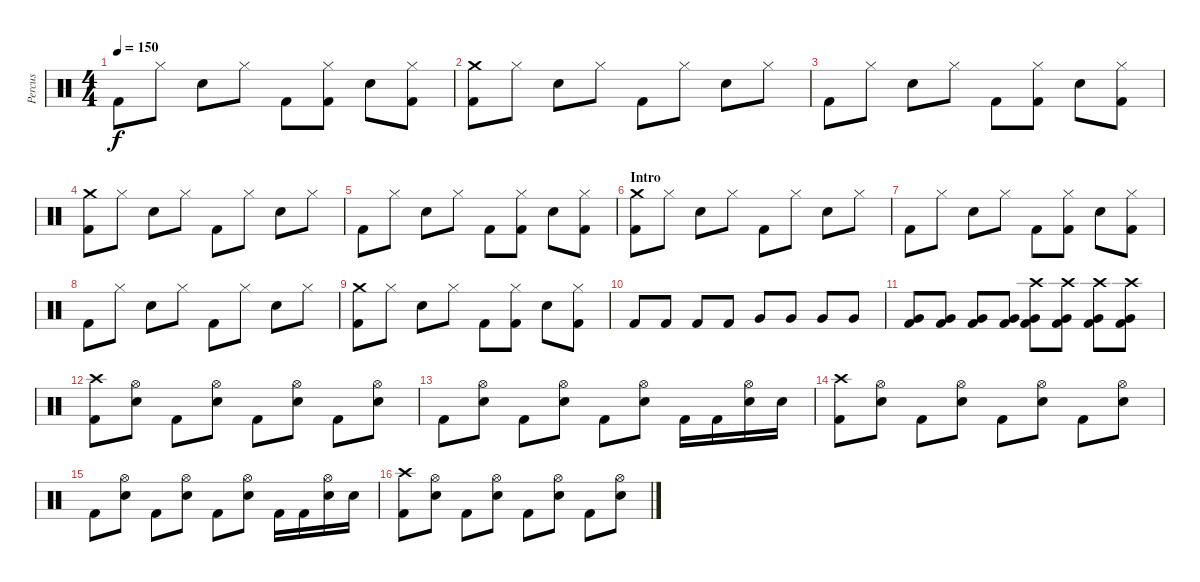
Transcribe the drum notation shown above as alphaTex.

\track ("Percus" "Percus") {instrument percussion}
\staff {score}
\articulation defaults
\ts (4 4)
\tempo 150
\clef neutral
\ks c "Kick (hit) 2".8{dy f} "Hi-Hat (closed)".8 "Snare (hit) 2".8 "Hi-Hat (closed)".8 "Kick (hit) 2".8
("Hi-Hat (closed)" "Kick (hit) 2").8 "Snare (hit) 2".8 ("Hi-Hat (closed)" "Kick (hit) 2").8 |
("Crash medium (hit)" "Kick (hit) 2").8 "Hi-Hat (closed)".8 "Snare (hit) 2".8 "Hi-Hat (closed)".8 "Kick (hit) 2".8 "Hi-Hat (closed)".8 "Snare (hit) 2".8 "Hi-Hat (closed)".8 |
"Kick (hit) 2".8 "Hi-Hat (closed)".8 "Snare (hit) 2".8 "Hi-Hat (closed)".8 "Kick (hit) 2".8 ("Hi-Hat (closed)" "Kick (hit) 2").8 "Snare (hit) 2".8 ("Hi-Hat (closed)" "Kick (hit) 2").8 |
("Crash medium (hit)" "Kick (hit) 2").8 "Hi-Hat (closed)".8 "Snare (hit) 2".8 "Hi-Hat (closed)".8 "Kick (hit) 2".8 "Hi-Hat (closed)".8 "Snare (hit) 2".8 "Hi-Hat (closed)".8 |
"Kick (hit) 2".8 "Hi-Hat (closed)".8 "Snare (hit) 2".8 "Hi-Hat (closed)".8 "Kick (hit) 2".8 ("Hi-Hat (closed)" "Kick (hit) 2").8 "Snare (hit) 2".8 ("Hi-Hat (closed)" "Kick (hit) 2").8 |
\section ("" "Intro")
("Crash medium (hit)" "Kick (hit) 2").8 "Hi-Hat (closed)".8 "Snare (hit) 2".8 "Hi-Hat (closed)".8 "Kick (hit) 2".8 "Hi-Hat (closed)".8 "Snare (hit) 2".8 "Hi-Hat (closed)".8 |
"Kick (hit) 2".8 "Hi-Hat (closed)".8 "Snare (hit) 2".8 "Hi-Hat (closed)".8 "Kick (hit) 2".8 ("Hi-Hat (closed)" "Kick (hit) 2").8 "Snare (hit) 2".8 ("Hi-Hat (closed)" "Kick (hit) 2").8 |
"Kick (hit) 2".8 "Hi-Hat (closed)".8 "Snare (hit) 2".8 "Hi-Hat (closed)".8 "Kick (hit) 2".8 "Hi-Hat (closed)".8 "Snare (hit) 2".8 "Hi-Hat (closed)".8 |
("Crash medium (hit)" "Kick (hit) 2").8 "Hi-Hat (closed)".8 "Snare (hit) 2".8 "Hi-Hat (closed)".8 "Kick (hit) 2".8 ("Hi-Hat (closed)" "Kick (hit) 2").8 "Snare (hit) 2".8 ("Hi-Hat (closed)" "Kick (hit) 2").8 |
"Kick (hit) 2".8 "Kick (hit) 2".8 "Kick (hit) 2".8 "Kick (hit) 2".8 "Very Low Tom (hit)".8 "Very Low Tom (hit)".8 "Very Low Tom (hit)".8 "Very Low Tom (hit)".8 |
("Very Low Tom (hit)" "Kick (hit) 2").8 ("Very Low Tom (hit)" "Kick (hit) 2").8 ("Very Low Tom (hit)" "Kick (hit) 2").8 ("Very Low Tom (hit)" "Kick (hit) 2").8 ("Crash high (hit)" "Very Low Tom (hit)" "Kick (hit) 2").8 ("Crash high (hit)" "Very Low Tom (hit)" "Kick (hit) 2").8 ("Crash high (hit)" "Very Low Tom (hit)" "Kick (hit) 2").8 ("Crash high (hit)" "Very Low Tom (hit)" "Kick (hit) 2").8 |
\section ("" "")
("Crash high (hit)" "Kick (hit) 2").8 ("Hi-Hat (open)" "Snare (hit) 2").8 "Kick (hit) 2".8 ("Hi-Hat (open)" "Snare (hit) 2").8 "Kick (hit) 2".8 ("Hi-Hat (open)" "Snare (hit) 2").8 "Kick (hit) 2".8 ("Hi-Hat (open)" "Snare (hit) 2").8 |
"Kick (hit) 2".8 ("Hi-Hat (open)" "Snare (hit) 2").8 "Kick (hit) 2".8 ("Hi-Hat (open)" "Snare (hit) 2").8 "Kick (hit) 2".8 ("Hi-Hat (open)" "Snare (hit) 2").8 "Kick (hit) 2".16 "Kick (hit) 2".16 ("Hi-Hat (open)" "Snare (hit) 2").16 "Snare (hit) 2".16 |
("Crash high (hit)" "Kick (hit) 2").8 ("Hi-Hat (open)" "Snare (hit) 2").8 "Kick (hit) 2".8 ("Hi-Hat (open)" "Snare (hit) 2").8 "Kick (hit) 2".8 ("Hi-Hat (open)" "Snare (hit) 2").8 "Kick (hit) 2".8 ("Hi-Hat (open)" "Snare (hit) 2").8 |
"Kick (hit) 2".8 ("Hi-Hat (open)" "Snare (hit) 2").8 "Kick (hit) 2".8 ("Hi-Hat (open)" "Snare (hit) 2").8 "Kick (hit) 2".8 ("Hi-Hat (open)" "Snare (hit) 2").8 "Kick (hit) 2".16 "Kick (hit) 2".16 ("Hi-Hat (open)" "Snare (hit) 2").16 "Snare (hit) 2".16 |
("Crash high (hit)" "Kick (hit) 2").8 ("Hi-Hat (open)" "Snare (hit) 2").8 "Kick (hit) 2".8 ("Hi-Hat (open)" "Snare (hit) 2").8 "Kick (hit) 2".8 ("Hi-Hat (open)" "Snare (hit) 2").8 "Kick (hit) 2".8 ("Hi-Hat (open)" "Snare (hit) 2").8
